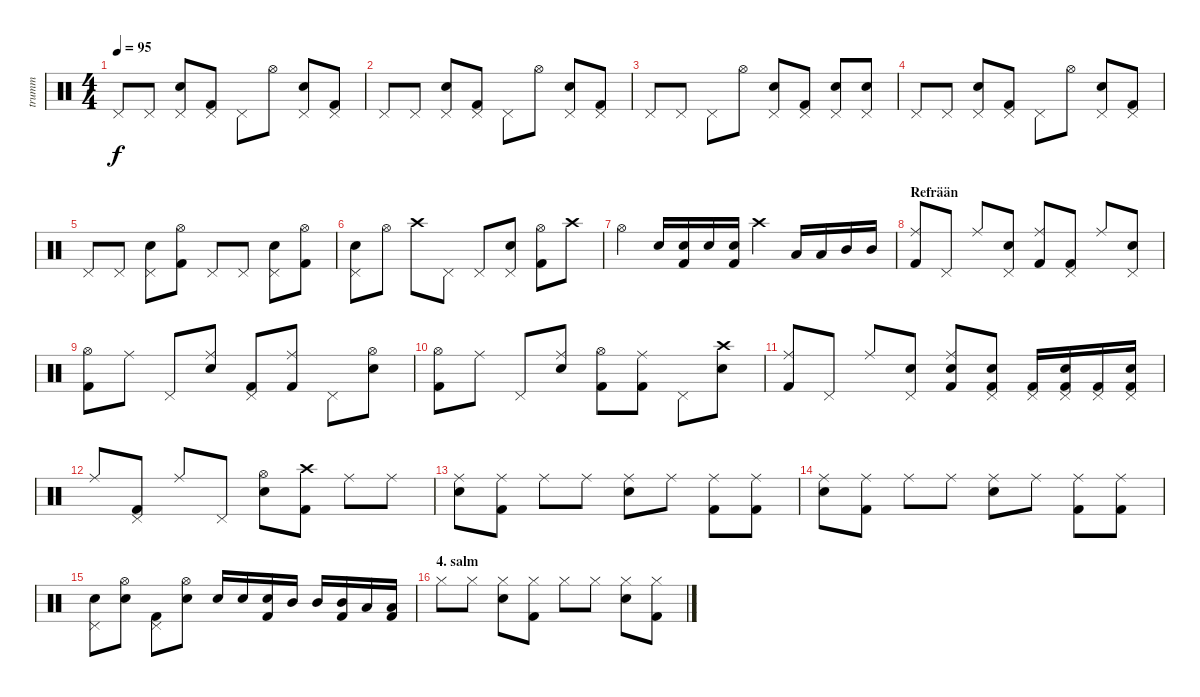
\track ("trumm" "trumm") {instrument percussion}
\staff {score}
\articulation defaults
\ts (4 4)
\tempo 95
\clef neutral
\ks c "Pedal Hi-Hat (hit)".8{dy f} "Pedal Hi-Hat (hit)".8
("Pedal Hi-Hat (hit)" "Snare (hit) 2").8 ("Pedal Hi-Hat (hit)" "Kick (hit) 2").8 "Pedal Hi-Hat (hit)".8 "Hi-Hat (open)".8 ("Pedal Hi-Hat (hit)" "Snare (hit) 2").8 ("Pedal Hi-Hat (hit)" "Kick (hit) 2").8 |
"Pedal Hi-Hat (hit)".8 "Pedal Hi-Hat (hit)".8 ("Pedal Hi-Hat (hit)" "Snare (hit) 2").8 ("Pedal Hi-Hat (hit)" "Kick (hit) 2").8 "Pedal Hi-Hat (hit)".8 "Hi-Hat (open)".8 ("Pedal Hi-Hat (hit)" "Snare (hit) 2").8 ("Pedal Hi-Hat (hit)" "Kick (hit) 2").8 |
"Pedal Hi-Hat (hit)".8 "Pedal Hi-Hat (hit)".8 "Pedal Hi-Hat (hit)".8 "Hi-Hat (open)".8 ("Pedal Hi-Hat (hit)" "Snare (hit) 2").8 ("Pedal Hi-Hat (hit)" "Kick (hit) 2").8 ("Pedal Hi-Hat (hit)" "Snare (hit) 2").8 ("Pedal Hi-Hat (hit)" "Snare (hit) 2").8 |
"Pedal Hi-Hat (hit)".8 "Pedal Hi-Hat (hit)".8 ("Pedal Hi-Hat (hit)" "Snare (hit) 2").8 ("Pedal Hi-Hat (hit)" "Kick (hit) 2").8 "Pedal Hi-Hat (hit)".8 "Hi-Hat (open)".8 ("Pedal Hi-Hat (hit)" "Snare (hit) 2").8 ("Pedal Hi-Hat (hit)" "Kick (hit) 2").8 |
"Pedal Hi-Hat (hit)".8 "Pedal Hi-Hat (hit)".8 ("Pedal Hi-Hat (hit)" "Snare (hit) 2").8 ("Hi-Hat (open)" "Kick (hit) 2").8 "Pedal Hi-Hat (hit)".8 "Pedal Hi-Hat (hit)".8 ("Pedal Hi-Hat (hit)" "Snare (hit) 2").8 ("Hi-Hat (open)" "Kick (hit) 2").8 |
("Pedal Hi-Hat (hit)" "Snare (hit) 2").8 "Hi-Hat (open)".8 "Crash high (hit)".8 "Pedal Hi-Hat (hit)".8 "Pedal Hi-Hat (hit)".8 ("Pedal Hi-Hat (hit)" "Snare (hit) 2").8 ("Hi-Hat (open)" "Kick (hit) 2").8 "Crash high (hit)".8 |
"Hi-Hat (open)".4 "Snare (hit) 2".16 ("Snare (hit) 2" "Kick (hit) 2").16 "Snare (hit) 2".16 ("Snare (hit) 2" "Kick (hit) 2").16 "Crash high (hit)".4 "Low Tom (hit)".16 "Low Tom (hit)".16 "Mid Tom (hit)".16 "Mid Tom (hit)".16 |
\section ("" "Refrään")
("Ride (middle)" "Kick (hit) 2").8 "Pedal Hi-Hat (hit)".8 "Ride (middle)".8 ("Pedal Hi-Hat (hit)" "Snare (hit) 2").8 ("Ride (middle)" "Kick (hit) 2").8 ("Pedal Hi-Hat (hit)" "Kick (hit) 2").8 "Ride (middle)".8 ("Pedal Hi-Hat (hit)" "Snare (hit) 2").8 |
("Hi-Hat (open)" "Kick (hit) 2").8 "Ride (middle)".8 "Pedal Hi-Hat (hit)".8 ("Ride (middle)" "Snare (hit) 2").8 ("Pedal Hi-Hat (hit)" "Kick (hit) 2").8 ("Ride (middle)" "Kick (hit) 2").8 "Pedal Hi-Hat (hit)".8 ("Hi-Hat (open)" "Snare (hit) 2").8 |
("Hi-Hat (open)" "Kick (hit) 2").8 "Ride (middle)".8 "Pedal Hi-Hat (hit)".8 ("Ride (middle)" "Snare (hit) 2").8 ("Hi-Hat (open)" "Kick (hit) 2").8 ("Ride (middle)" "Kick (hit) 2").8 "Pedal Hi-Hat (hit)".8 ("Crash high (hit)" "Snare (hit) 2").8 |
("Ride (middle)" "Kick (hit) 2").8 "Pedal Hi-Hat (hit)".8 "Ride (middle)".8 ("Pedal Hi-Hat (hit)" "Snare (hit) 2").8 ("Ride (middle)" "Snare (hit) 2" "Kick (hit) 2").8 ("Pedal Hi-Hat (hit)" "Snare (hit) 2" "Kick (hit) 2").8 ("Pedal Hi-Hat (hit)" "Kick (hit) 2").16 ("Pedal Hi-Hat (hit)" "Snare (hit) 2" "Kick (hit) 2").16 ("Pedal Hi-Hat (hit)" "Kick (hit) 2").16 ("Pedal Hi-Hat (hit)" "Snare (hit) 2" "Kick (hit) 2").16 |
"Ride (middle)".8 ("Pedal Hi-Hat (hit)" "Kick (hit) 2").8 "Ride (middle)".8 "Pedal Hi-Hat (hit)".8 ("Hi-Hat (open)" "Snare (hit) 2").8 ("Crash high (hit)" "Kick (hit) 2").8 "Ride (middle)".8 "Ride (middle)".8 |
("Ride (middle)" "Snare (hit) 2").8 ("Ride (middle)" "Kick (hit) 2").8 "Ride (middle)".8 "Ride (middle)".8 ("Ride (middle)" "Snare (hit) 2").8 "Ride (middle)".8 ("Ride (middle)" "Kick (hit) 2").8 ("Ride (middle)" "Kick (hit) 2").8 |
("Ride (middle)" "Snare (hit) 2").8 ("Ride (middle)" "Kick (hit) 2").8 "Ride (middle)".8 "Ride (middle)".8 ("Ride (middle)" "Snare (hit) 2").8 "Ride (middle)".8 ("Ride (middle)" "Kick (hit) 2").8 ("Ride (middle)" "Kick (hit) 2").8 |
("Pedal Hi-Hat (hit)" "Snare (hit) 2").8 ("Hi-Hat (open)" "Snare (hit) 2").8 ("Pedal Hi-Hat (hit)" "Kick (hit) 2").8 ("Hi-Hat (open)" "Snare (hit) 2").8 "Snare (hit) 2".16 "Snare (hit) 2".16 ("Snare (hit) 2" "Kick (hit) 2").16 "Mid Tom (hit)".16 "Mid Tom (hit)".16 ("Mid Tom (hit)" "Kick (hit) 2").16 "Low Tom (hit)".16 ("Low Tom (hit)" "Kick (hit) 2").16 |
\section ("" "4. salm")
"Hi-Hat (closed)".8 "Hi-Hat (closed)".8 ("Hi-Hat (closed)" "Snare (hit) 2").8 ("Hi-Hat (closed)" "Kick (hit) 2").8 "Hi-Hat (closed)".8 "Hi-Hat (closed)".8 ("Hi-Hat (closed)" "Snare (hit) 2").8 ("Hi-Hat (closed)" "Kick (hit) 2").8
